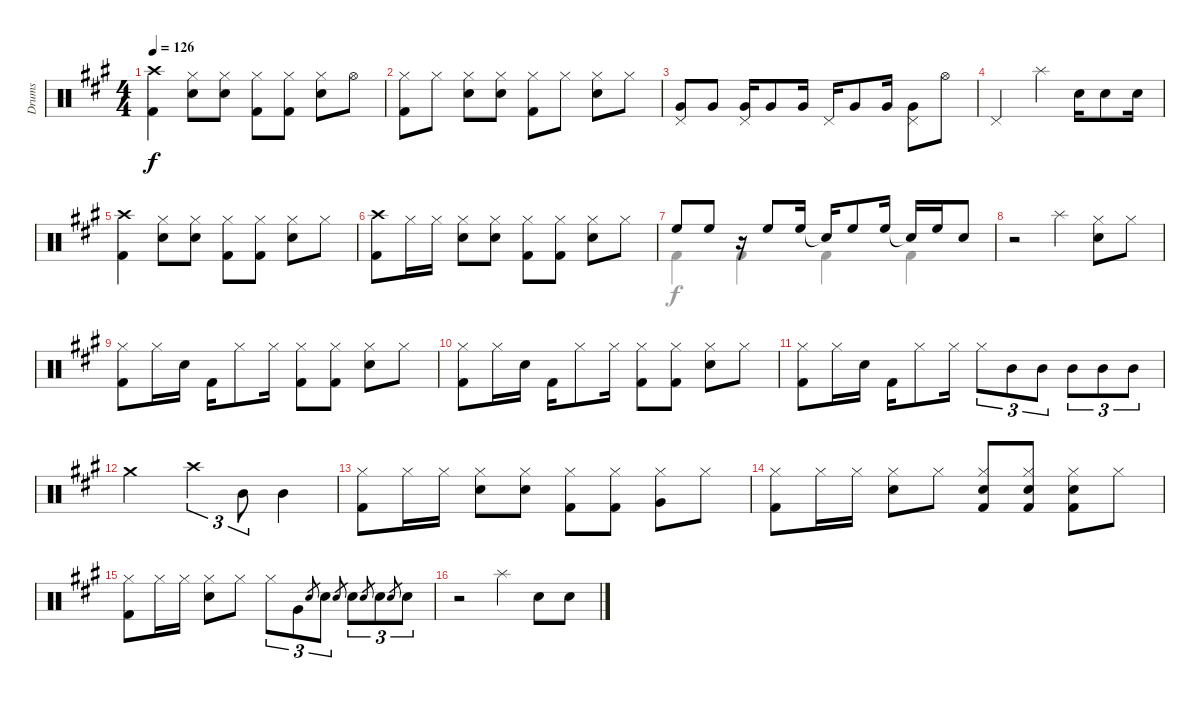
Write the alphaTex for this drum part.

\track ("Drums" "Drums") {instrument percussion}
\staff {score}
\articulation defaults
\voice
\ts (4 4)
\tempo 126
\clef neutral
\ks a
("Crash high (hit)" "Kick (hit) 2").4{dy f} ("Hi-Hat (closed)" "Snare (hit) 2").8 ("Hi-Hat (closed)" "Snare (hit) 2").8 ("Hi-Hat (closed)" "Kick (hit) 2").8 ("Hi-Hat (closed)" "Kick (hit) 2").8 ("Hi-Hat (closed)" "Snare (hit) 2").8 "Hi-Hat (open)".8 |
("Hi-Hat (closed)" "Kick (hit) 2").8 "Hi-Hat (closed)".8 ("Hi-Hat (closed)" "Snare (hit) 2").8 ("Hi-Hat (closed)" "Snare (hit) 2").8 ("Hi-Hat (closed)" "Kick (hit) 2").8 "Hi-Hat (closed)".8 ("Hi-Hat (closed)" "Snare (hit) 2").8 "Hi-Hat (closed)".8 |
("Pedal Hi-Hat (hit)" "Very Low Tom (hit)").8 "Very Low Tom (hit)".8 ("Pedal Hi-Hat (hit)" "Very Low Tom (hit)").16 "Very Low Tom (hit)".8 "Very Low Tom (hit)".16 "Pedal Hi-Hat (hit)".16 "Very Low Tom (hit)".8 "Very Low Tom (hit)".16 ("Pedal Hi-Hat (hit)" "Very Low Tom (hit)").8 "Hi-Hat (open)".8 |
"Pedal Hi-Hat (hit)".2 "Splash (hit)".4 "Snare (hit) 2".16 "Snare (hit) 2".8 "Snare (hit) 2".16 |
("Crash high (hit)" "Kick (hit) 2").4 ("Hi-Hat (closed)" "Snare (hit) 2").8 ("Hi-Hat (closed)" "Snare (hit) 2").8 ("Hi-Hat (closed)" "Kick (hit) 2").8 ("Hi-Hat (closed)" "Kick (hit) 2").8 ("Hi-Hat (closed)" "Snare (hit) 2").8 "Hi-Hat (closed)".8 |
("Crash high (hit)" "Kick (hit) 2").8 "Hi-Hat (closed)".16 "Hi-Hat (closed)".16 ("Hi-Hat (closed)" "Snare (hit) 2").8 ("Hi-Hat (closed)" "Snare (hit) 2").8 ("Hi-Hat (closed)" "Kick (hit) 2").8 ("Hi-Hat (closed)" "Kick (hit) 2").8 ("Hi-Hat (closed)" "Snare (hit) 2").8 "Hi-Hat (closed)".8 |
"High Floor Tom (hit)".8 "High Floor Tom (hit)".8 r.16 "High Floor Tom (hit)".8 "High Floor Tom (hit)".16 "Snare (hit)"{t}.16 "High Floor Tom (hit)".8 "High Floor Tom (hit)".16 "Snare (hit)"{t}.16 "High Floor Tom (hit)".16 "Snare (hit) 2".8 |
r.2 "Splash (hit)".4 ("Hi-Hat (closed)" "Snare (hit) 2").8 "Hi-Hat (closed)".8 |
("Hi-Hat (closed)" "Kick (hit) 2").8 "Hi-Hat (closed)".16 "Snare (hit) 2".16 "Kick (hit) 2".16 "Hi-Hat (closed)".8 "Hi-Hat (closed)".16 ("Hi-Hat (closed)" "Kick (hit) 2").8 ("Hi-Hat (closed)" "Kick (hit) 2").8 ("Hi-Hat (closed)" "Snare (hit) 2").8 "Hi-Hat (closed)".8 |
("Hi-Hat (closed)" "Kick (hit) 2").8 "Hi-Hat (closed)".16 "Snare (hit) 2".16 "Kick (hit) 2".16 "Hi-Hat (closed)".8 "Hi-Hat (closed)".16 ("Hi-Hat (closed)" "Kick (hit) 2").8 ("Hi-Hat (closed)" "Kick (hit) 2").8 ("Hi-Hat (closed)" "Snare (hit) 2").8 "Hi-Hat (closed)".8 |
("Hi-Hat (closed)" "Kick (hit) 2").8 "Hi-Hat (closed)".16 "Snare (hit) 2".16 "Kick (hit) 2".16 "Hi-Hat (closed)".8 "Hi-Hat (closed)".16 "Hi-Hat (closed)".8{tu (3 2)} "Mid Tom (hit)".8{tu (3 2)} "Mid Tom (hit)".8{tu (3 2)} "Mid Tom (hit)".8{tu (3 2)} "Mid Tom (hit)".8{tu (3 2)} "Mid Tom (hit)".8{tu (3 2)} |
"Crash medium (hit)".2 "Crash high (hit)".4{tu (3 2)} "Mid Tom (hit)".8{tu (3 2)} "Mid Tom (hit)".4 |
("Hi-Hat (closed)" "Kick (hit) 2").8 "Hi-Hat (closed)".16 "Hi-Hat (closed)".16 ("Hi-Hat (closed)" "Snare (hit) 2").8 ("Hi-Hat (closed)" "Snare (hit) 2").8 ("Hi-Hat (closed)" "Kick (hit) 2").8 ("Hi-Hat (closed)" "Kick (hit) 2").8 ("Hi-Hat (closed)" "Very Low Tom (hit)").8 "Hi-Hat (closed)".8 |
("Hi-Hat (closed)" "Kick (hit) 2").8 "Hi-Hat (closed)".16 "Hi-Hat (closed)".16 ("Hi-Hat (closed)" "Snare (hit) 2").8 "Hi-Hat (closed)".8 ("Hi-Hat (closed)" "Snare (hit) 2" "Kick (hit) 2").8 ("Hi-Hat (closed)" "Snare (hit) 2" "Kick (hit) 2").8 ("Hi-Hat (closed)" "Snare (hit) 2" "Kick (hit) 2").8 "Hi-Hat (closed)".8 |
("Hi-Hat (closed)" "Kick (hit) 2").8 "Hi-Hat (closed)".16 "Hi-Hat (closed)".16 ("Hi-Hat (closed)" "Snare (hit) 2").8 "Hi-Hat (closed)".8 "Hi-Hat (closed)".8{tu (3 2)} "Very Low Tom (hit)".8{tu (3 2)} "Snare (hit) 2".8{gr} "Snare (hit) 2".8{tu (3 2)} "Snare (hit) 2".8{gr} "Snare (hit) 2".8{tu (3 2)} "Snare (hit) 2".8{gr} "Snare (hit) 2".8{tu (3 2)} "Snare (hit) 2".8{gr} "Snare (hit) 2".8{tu (3 2)} |
r.2 "Splash (hit)".4 "Snare (hit) 2".8 "Snare (hit) 2".8
\voice
\clef neutral
\ottava regular
\simile none
\ks a
|
|
|
|
|
|
"Kick (hit) 2".4 "Kick (hit) 2".4 "Kick (hit) 2".4 "Kick (hit) 2".4 |
|
|
|
|
|
|
|
|
